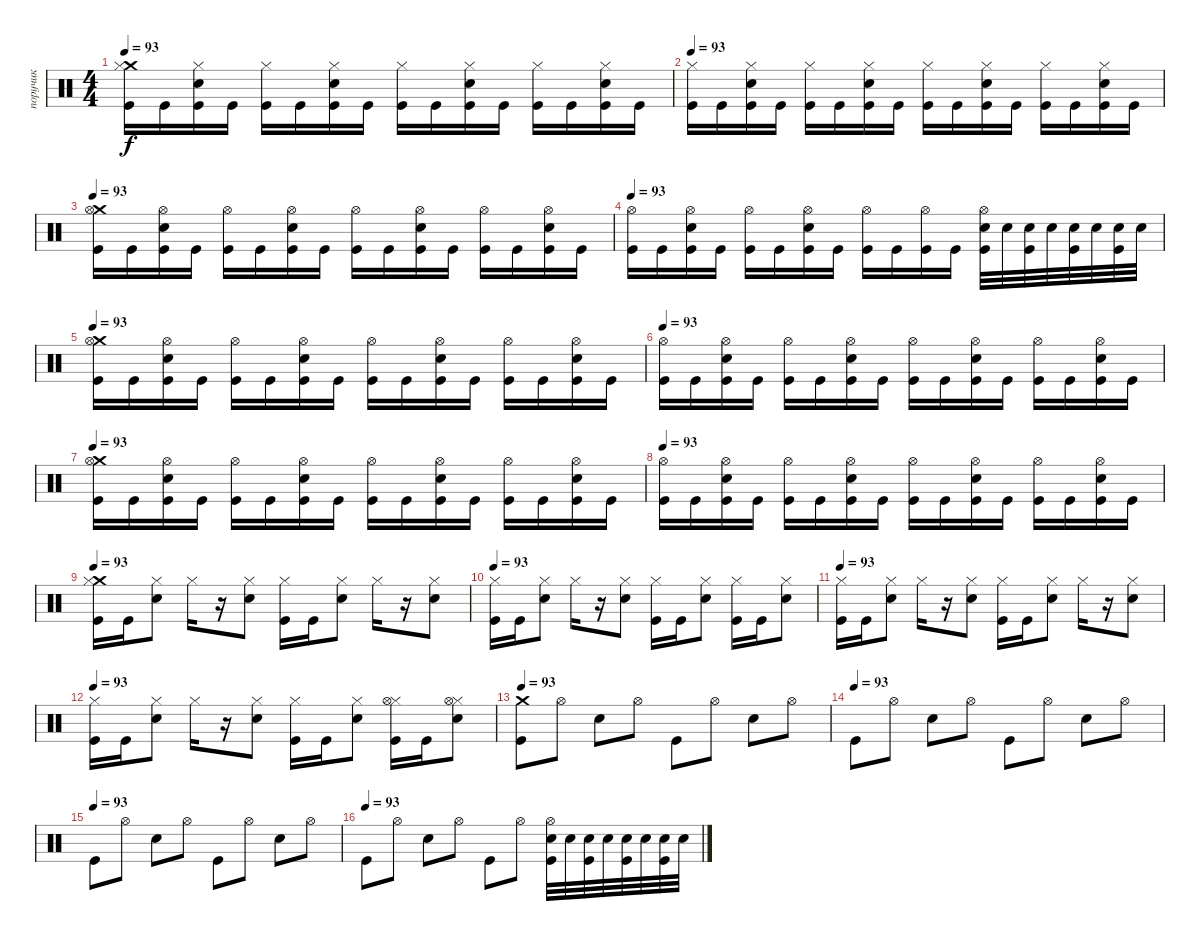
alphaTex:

\track ("поручик" "поручик") {instrument percussion}
\staff {score}
\articulation defaults
\ts (4 4)
\tempo 93
\clef neutral
\ks c
("Kick (hit)" "Crash medium (hit)" "Hi-Hat (closed)").16{dy f} "Kick (hit)".16 ("Kick (hit)" "Hi-Hat (closed)" "Electric Snare (hit)").16 "Kick (hit)".16 ("Kick (hit)" "Hi-Hat (closed)").16 "Kick (hit)".16 ("Kick (hit)" "Electric Snare (hit)" "Hi-Hat (closed)").16 "Kick (hit)".16 ("Kick (hit)" "Hi-Hat (closed)").16 "Kick (hit)".16 ("Kick (hit)" "Hi-Hat (closed)" "Electric Snare (hit)").16 "Kick (hit)".16 ("Kick (hit)" "Hi-Hat (closed)").16 "Kick (hit)".16 ("Kick (hit)" "Electric Snare (hit)" "Hi-Hat (closed)").16 "Kick (hit)".16 |
\tempo 93
("Kick (hit)" "Hi-Hat (closed)").16 "Kick (hit)".16 ("Kick (hit)" "Hi-Hat (closed)" "Electric Snare (hit)").16 "Kick (hit)".16 ("Kick (hit)" "Hi-Hat (closed)").16 "Kick (hit)".16 ("Kick (hit)" "Electric Snare (hit)" "Hi-Hat (closed)").16 "Kick (hit)".16 ("Kick (hit)" "Hi-Hat (closed)").16 "Kick (hit)".16 ("Kick (hit)" "Hi-Hat (closed)" "Electric Snare (hit)").16 "Kick (hit)".16 ("Kick (hit)" "Hi-Hat (closed)").16 "Kick (hit)".16 ("Kick (hit)" "Electric Snare (hit)" "Hi-Hat (closed)").16 "Kick (hit)".16 |
\tempo 93
("Crash medium (hit)" "Kick (hit)" "Hi-Hat (open)").16 "Kick (hit)".16 ("Kick (hit)" "Hi-Hat (open)" "Electric Snare (hit)").16 "Kick (hit)".16 ("Kick (hit)" "Hi-Hat (open)").16 "Kick (hit)".16 ("Hi-Hat (open)" "Kick (hit)" "Electric Snare (hit)").16 "Kick (hit)".16 ("Hi-Hat (open)" "Kick (hit)").16 "Kick (hit)".16 ("Kick (hit)" "Hi-Hat (open)" "Electric Snare (hit)").16 "Kick (hit)".16 ("Hi-Hat (open)" "Kick (hit)").16 "Kick (hit)".16 ("Kick (hit)" "Electric Snare (hit)" "Hi-Hat (open)").16 "Kick (hit)".16 |
\tempo 93
("Kick (hit)" "Hi-Hat (open)").16 "Kick (hit)".16 ("Kick (hit)" "Hi-Hat (open)" "Electric Snare (hit)").16 "Kick (hit)".16 ("Kick (hit)" "Hi-Hat (open)").16 "Kick (hit)".16 ("Hi-Hat (open)" "Kick (hit)" "Electric Snare (hit)").16 "Kick (hit)".16 ("Kick (hit)" "Hi-Hat (open)").16 "Kick (hit)".16 ("Hi-Hat (open)" "Kick (hit)").16 "Kick (hit)".16 ("Hi-Hat (open)" "Electric Snare (hit)" "Kick (hit)").32 "Electric Snare (hit)".32 ("Electric Snare (hit)" "Kick (hit)").32 "Electric Snare (hit)".32 ("Electric Snare (hit)" "Kick (hit)").32 "Electric Snare (hit)".32 ("Electric Snare (hit)" "Kick (hit)").32 "Electric Snare (hit)".32 |
\tempo 93
("Crash medium (hit)" "Kick (hit)" "Hi-Hat (open)").16 "Kick (hit)".16 ("Kick (hit)" "Hi-Hat (open)" "Electric Snare (hit)").16 "Kick (hit)".16 ("Kick (hit)" "Hi-Hat (open)").16 "Kick (hit)".16 ("Hi-Hat (open)" "Kick (hit)" "Electric Snare (hit)").16 "Kick (hit)".16 ("Hi-Hat (open)" "Kick (hit)").16 "Kick (hit)".16 ("Kick (hit)" "Hi-Hat (open)" "Electric Snare (hit)").16 "Kick (hit)".16 ("Hi-Hat (open)" "Kick (hit)").16 "Kick (hit)".16 ("Kick (hit)" "Electric Snare (hit)" "Hi-Hat (open)").16 "Kick (hit)".16 |
\tempo 93
("Kick (hit)" "Hi-Hat (open)").16 "Kick (hit)".16 ("Kick (hit)" "Hi-Hat (open)" "Electric Snare (hit)").16 "Kick (hit)".16 ("Kick (hit)" "Hi-Hat (open)").16 "Kick (hit)".16 ("Hi-Hat (open)" "Kick (hit)" "Electric Snare (hit)").16 "Kick (hit)".16 ("Hi-Hat (open)" "Kick (hit)").16 "Kick (hit)".16 ("Kick (hit)" "Hi-Hat (open)" "Electric Snare (hit)").16 "Kick (hit)".16 ("Hi-Hat (open)" "Kick (hit)").16 "Kick (hit)".16 ("Kick (hit)" "Electric Snare (hit)" "Hi-Hat (open)").16 "Kick (hit)".16 |
\tempo 93
("Crash medium (hit)" "Kick (hit)" "Hi-Hat (open)").16 "Kick (hit)".16 ("Kick (hit)" "Hi-Hat (open)" "Electric Snare (hit)").16 "Kick (hit)".16 ("Kick (hit)" "Hi-Hat (open)").16 "Kick (hit)".16 ("Hi-Hat (open)" "Kick (hit)" "Electric Snare (hit)").16 "Kick (hit)".16 ("Hi-Hat (open)" "Kick (hit)").16 "Kick (hit)".16 ("Kick (hit)" "Hi-Hat (open)" "Electric Snare (hit)").16 "Kick (hit)".16 ("Hi-Hat (open)" "Kick (hit)").16 "Kick (hit)".16 ("Kick (hit)" "Electric Snare (hit)" "Hi-Hat (open)").16 "Kick (hit)".16 |
\tempo 93
("Kick (hit)" "Hi-Hat (open)").16 "Kick (hit)".16 ("Kick (hit)" "Hi-Hat (open)" "Electric Snare (hit)").16 "Kick (hit)".16 ("Kick (hit)" "Hi-Hat (open)").16 "Kick (hit)".16 ("Hi-Hat (open)" "Kick (hit)" "Electric Snare (hit)").16 "Kick (hit)".16 ("Hi-Hat (open)" "Kick (hit)").16 "Kick (hit)".16 ("Kick (hit)" "Hi-Hat (open)" "Electric Snare (hit)").16 "Kick (hit)".16 ("Hi-Hat (open)" "Kick (hit)").16 "Kick (hit)".16 ("Kick (hit)" "Electric Snare (hit)" "Hi-Hat (open)").16 "Kick (hit)".16 |
\tempo 93
("Kick (hit)" "Crash medium (hit)" "Hi-Hat (closed)").16 "Kick (hit)".16 ("Hi-Hat (closed)" "Electric Snare (hit)").8 "Hi-Hat (closed)".16 r.16 ("Electric Snare (hit)" "Hi-Hat (closed)").8 ("Kick (hit)" "Hi-Hat (closed)").16 "Kick (hit)".16 ("Hi-Hat (closed)" "Electric Snare (hit)").8 "Hi-Hat (closed)".16 r.16 ("Electric Snare (hit)" "Hi-Hat (closed)").8 |
\tempo 93
("Kick (hit)" "Hi-Hat (closed)").16 "Kick (hit)".16 ("Hi-Hat (closed)" "Electric Snare (hit)").8 "Hi-Hat (closed)".16 r.16 ("Electric Snare (hit)" "Hi-Hat (closed)").8 ("Kick (hit)" "Hi-Hat (closed)").16 "Kick (hit)".16 ("Hi-Hat (closed)" "Electric Snare (hit)").8 ("Kick (hit)" "Hi-Hat (closed)").16 "Kick (hit)".16 ("Electric Snare (hit)" "Hi-Hat (closed)").8 |
\tempo 93
("Kick (hit)" "Hi-Hat (closed)").16 "Kick (hit)".16 ("Hi-Hat (closed)" "Electric Snare (hit)").8 "Hi-Hat (closed)".16 r.16 ("Electric Snare (hit)" "Hi-Hat (closed)").8 ("Kick (hit)" "Hi-Hat (closed)").16 "Kick (hit)".16 ("Hi-Hat (closed)" "Electric Snare (hit)").8 "Hi-Hat (closed)".16 r.16 ("Electric Snare (hit)" "Hi-Hat (closed)").8 |
\tempo 93
("Kick (hit)" "Hi-Hat (closed)").16 "Kick (hit)".16 ("Hi-Hat (closed)" "Electric Snare (hit)").8 "Hi-Hat (closed)".16 r.16 ("Electric Snare (hit)" "Hi-Hat (closed)").8 ("Kick (hit)" "Hi-Hat (closed)").16 "Kick (hit)".16 ("Hi-Hat (closed)" "Electric Snare (hit)").8 ("Kick (hit)" "Hi-Hat (closed)" "Hi-Hat (open)").16 "Kick (hit)".16 ("Electric Snare (hit)" "Hi-Hat (closed)" "Hi-Hat (open)").8 |
\tempo 93
("Kick (hit)" "Crash medium (hit)").8 "Hi-Hat (open)".8 "Electric Snare (hit)".8 "Hi-Hat (open)".8 "Kick (hit)".8 "Hi-Hat (open)".8 "Electric Snare (hit)".8 "Hi-Hat (open)".8 |
\tempo (93)
"Kick (hit)".8 "Hi-Hat (open)".8 "Electric Snare (hit)".8 "Hi-Hat (open)".8 "Kick (hit)".8 "Hi-Hat (open)".8 "Electric Snare (hit)".8 "Hi-Hat (open)".8 |
\tempo (93)
"Kick (hit)".8 "Hi-Hat (open)".8 "Electric Snare (hit)".8 "Hi-Hat (open)".8 "Kick (hit)".8 "Hi-Hat (open)".8 "Electric Snare (hit)".8 "Hi-Hat (open)".8 |
\tempo (93)
"Kick (hit)".8 "Hi-Hat (open)".8 "Electric Snare (hit)".8 "Hi-Hat (open)".8 "Kick (hit)".8 "Hi-Hat (open)".8 ("Hi-Hat (open)" "Electric Snare (hit)" "Kick (hit)").32 "Electric Snare (hit)".32 ("Electric Snare (hit)" "Kick (hit)").32 "Electric Snare (hit)".32 ("Electric Snare (hit)" "Kick (hit)").32 "Electric Snare (hit)".32 ("Electric Snare (hit)" "Kick (hit)").32 "Electric Snare (hit)".32
